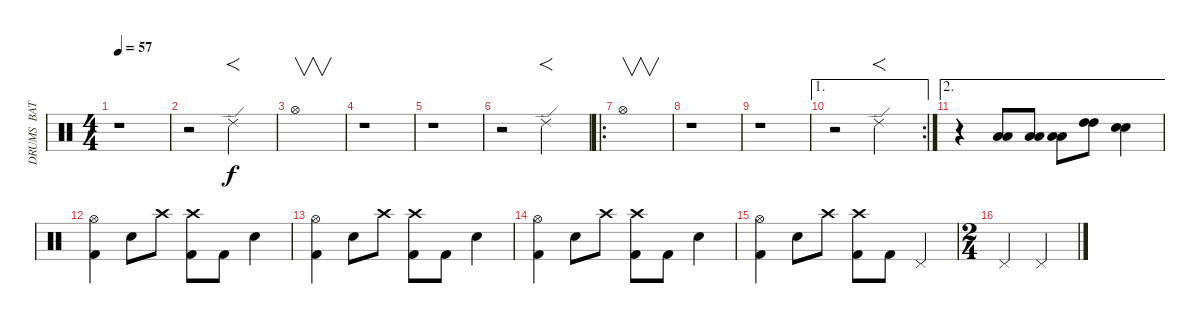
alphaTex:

\track ("DRUMS  BATERIA" "DRUMS  BAT") {instrument percussion}
\staff {score}
\articulation defaults
\ts (4 4)
\tempo 57
\clef neutral
\ks c
r.1{dy f} |
r.2 "Ride (edge) 2".2{f} |
"Hi-Hat (open)".1{v} |
r.1 |
r.1 |
r.2 "Ride (edge) 2".2{f} |
\ro "Hi-Hat (open)".1{v}
|
r.1 |
r.1 |
\ae 1
\rc 2
r.2 "Ride (edge) 2".2{f} |
\ae 2
r.4 ("Low Tom (hit)" "Low Tom (hit)").8 ("Low Tom (hit)" "Low Tom (hit)").8 ("Low Tom (hit)" "Low Tom (hit)").8 ("High Tom (hit)" "High Tom (hit)").8 ("Snare (hit) 2" "Snare (hit) 2").4 |
("Hi-Hat (open)" "Kick (hit) 2").4 "Snare (hit) 2".8 "Crash high (hit)".8 ("Crash high (hit)" "Kick (hit) 2").8 "Kick (hit) 2".8 "Snare (hit) 2".4 |
("Hi-Hat (open)" "Kick (hit) 2").4 "Snare (hit) 2".8 "Crash high (hit)".8 ("Crash high (hit)" "Kick (hit) 2").8 "Kick (hit) 2".8 "Snare (hit) 2".4 |
("Hi-Hat (open)" "Kick (hit) 2").4 "Snare (hit) 2".8 "Crash high (hit)".8 ("Crash high (hit)" "Kick (hit) 2").8 "Kick (hit) 2".8 "Snare (hit) 2".4 |
("Hi-Hat (open)" "Kick (hit) 2").4 "Snare (hit) 2".8 "Crash high (hit)".8 ("Crash high (hit)" "Kick (hit) 2").8 "Kick (hit) 2".8 "Pedal Hi-Hat (hit)".4 |
\ts (2 4)
"Pedal Hi-Hat (hit)".4 "Pedal Hi-Hat (hit)".4
